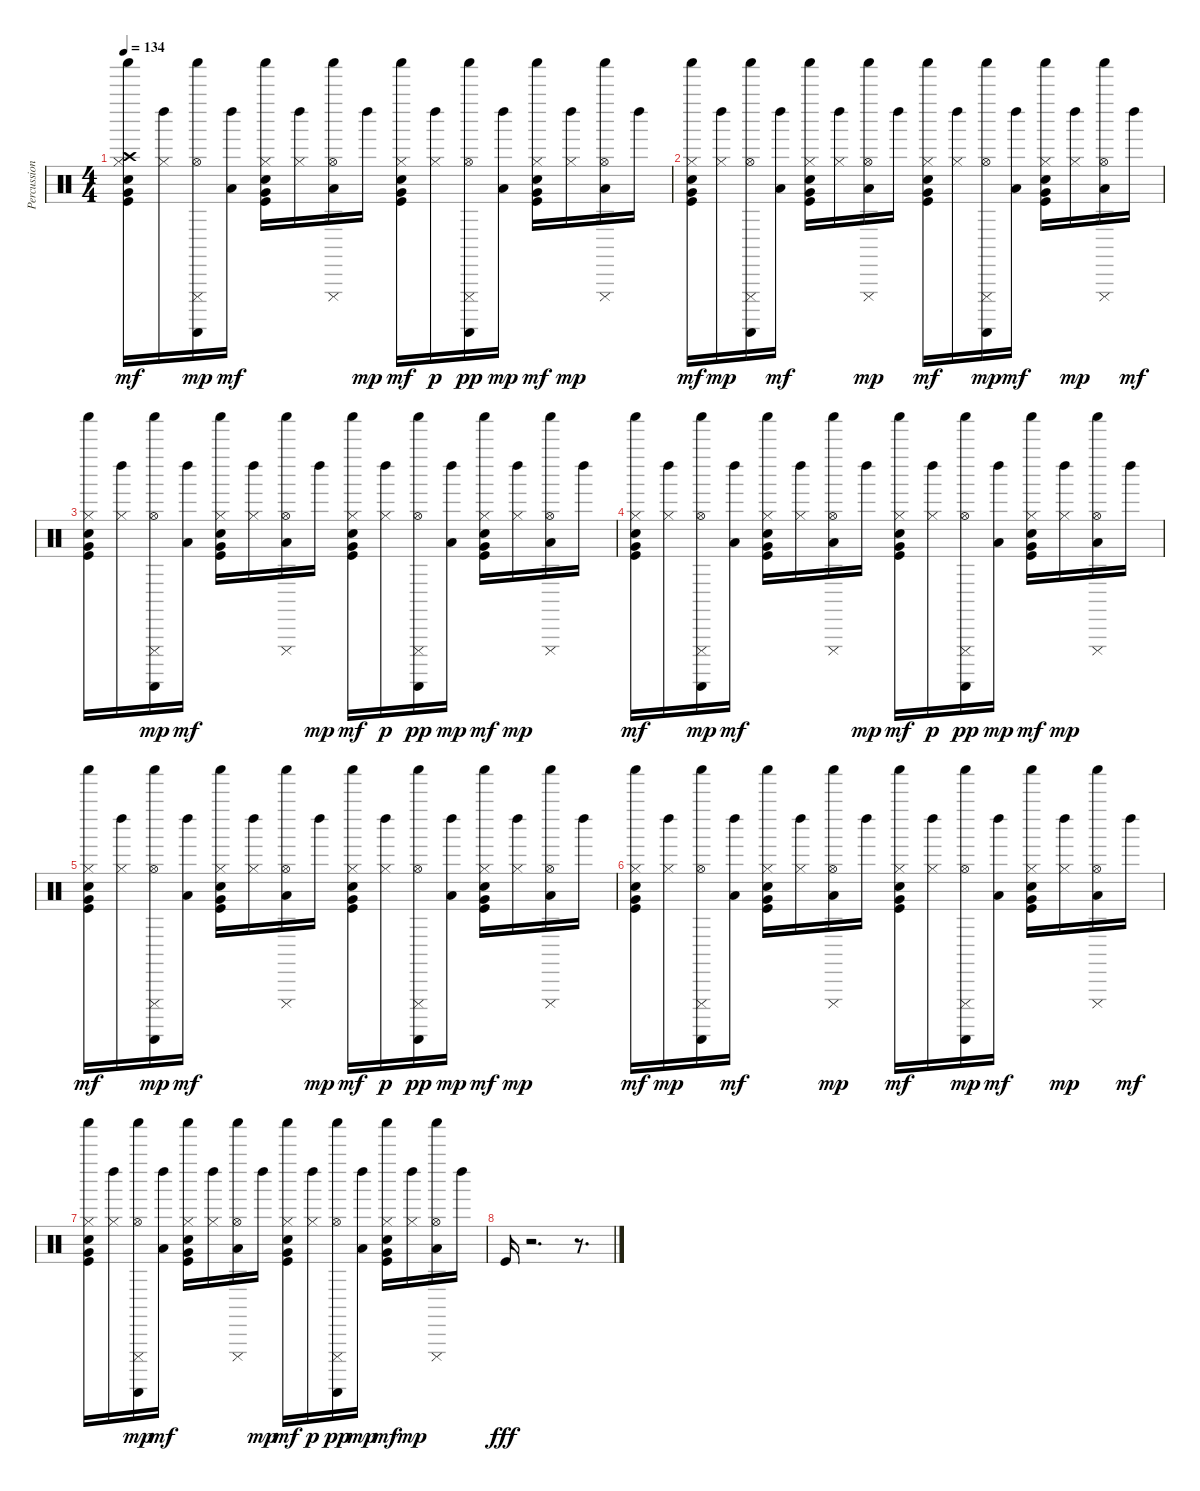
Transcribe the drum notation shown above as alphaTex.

\track ("Percussion" "Percussion") {instrument percussion}
\staff {score}
\articulation defaults
\ts (4 4)
\tempo 134
\clef neutral
\ks c
("Kick (hit)" "Hand Clap (hit)" "Hi-Hat (closed)" "Very Low Tom (hit)" "Crash high (hit)" "Shaker (hit)").16{dy mf} ("Hi-Hat (closed)" "Left Maraca (hit)").16 ("Hi-Hat (open)" "Guiro (scrap-return)" "Cuica (mute)" "Shaker (hit)").16{dy mp} ("Low Tom (hit)" "Left Maraca (hit)").16{dy mf} ("Kick (hit)" "Hand Clap (hit)" "Hi-Hat (closed)" "Very Low Tom (hit)" "Shaker (hit)").16 ("Hi-Hat (closed)" "Left Maraca (hit)").16 ("Low Tom (hit)" "Hi-Hat (open)" "Cuica (mute)" "Shaker (hit)").16 "Left Maraca (hit)".16{dy mp} ("Kick (hit)" "Hand Clap (hit)" "Hi-Hat (closed)" "Very Low Tom (hit)" "Shaker (hit)").16{dy mf} ("Hi-Hat (closed)" "Left Maraca (hit)").16{dy p} ("Hi-Hat (open)" "Guiro (scrap-return)" "Cuica (mute)" "Shaker (hit)").16{dy pp} ("Low Tom (hit)" "Left Maraca (hit)").16{dy mp} ("Kick (hit)" "Hand Clap (hit)" "Hi-Hat (closed)" "Very Low Tom (hit)" "Shaker (hit)").16{dy mf} ("Hi-Hat (closed)" "Left Maraca (hit)").16{dy mp} ("Low Tom (hit)" "Hi-Hat (open)" "Cuica (mute)" "Shaker (hit)").16 "Left Maraca (hit)".16 |
("Kick (hit)" "Hand Clap (hit)" "Hi-Hat (closed)" "Very Low Tom (hit)" "Shaker (hit)").16{dy mf} ("Hi-Hat (closed)" "Left Maraca (hit)").16{dy mp} ("Hi-Hat (open)" "Guiro (scrap-return)" "Cuica (mute)" "Shaker (hit)").16 ("Low Tom (hit)" "Left Maraca (hit)").16{dy mf} ("Kick (hit)" "Hand Clap (hit)" "Hi-Hat (closed)" "Very Low Tom (hit)" "Shaker (hit)").16 ("Hi-Hat (closed)" "Left Maraca (hit)").16 ("Low Tom (hit)" "Hi-Hat (open)" "Cuica (mute)" "Shaker (hit)").16{dy mp} "Left Maraca (hit)".16 ("Kick (hit)" "Hand Clap (hit)" "Hi-Hat (closed)" "Very Low Tom (hit)" "Shaker (hit)").16{dy mf} ("Hi-Hat (closed)" "Left Maraca (hit)").16 ("Hi-Hat (open)" "Guiro (scrap-return)" "Cuica (mute)" "Shaker (hit)").16{dy mp} ("Low Tom (hit)" "Left Maraca (hit)").16{dy mf} ("Kick (hit)" "Hand Clap (hit)" "Hi-Hat (closed)" "Very Low Tom (hit)" "Shaker (hit)").16 ("Hi-Hat (closed)" "Left Maraca (hit)").16{dy mp} ("Low Tom (hit)" "Hi-Hat (open)" "Cuica (mute)" "Shaker (hit)").16 "Left Maraca (hit)".16{dy mf} |
("Kick (hit)" "Hand Clap (hit)" "Hi-Hat (closed)" "Very Low Tom (hit)" "Shaker (hit)").16 ("Hi-Hat (closed)" "Left Maraca (hit)").16 ("Hi-Hat (open)" "Guiro (scrap-return)" "Cuica (mute)" "Shaker (hit)").16{dy mp} ("Low Tom (hit)" "Left Maraca (hit)").16{dy mf} ("Kick (hit)" "Hand Clap (hit)" "Hi-Hat (closed)" "Very Low Tom (hit)" "Shaker (hit)").16 ("Hi-Hat (closed)" "Left Maraca (hit)").16 ("Low Tom (hit)" "Hi-Hat (open)" "Cuica (mute)" "Shaker (hit)").16 "Left Maraca (hit)".16{dy mp} ("Kick (hit)" "Hand Clap (hit)" "Hi-Hat (closed)" "Very Low Tom (hit)" "Shaker (hit)").16{dy mf} ("Hi-Hat (closed)" "Left Maraca (hit)").16{dy p} ("Hi-Hat (open)" "Guiro (scrap-return)" "Cuica (mute)" "Shaker (hit)").16{dy pp} ("Low Tom (hit)" "Left Maraca (hit)").16{dy mp} ("Kick (hit)" "Hand Clap (hit)" "Hi-Hat (closed)" "Very Low Tom (hit)" "Shaker (hit)").16{dy mf} ("Hi-Hat (closed)" "Left Maraca (hit)").16{dy mp} ("Low Tom (hit)" "Hi-Hat (open)" "Cuica (mute)" "Shaker (hit)").16 "Left Maraca (hit)".16 |
("Kick (hit)" "Hand Clap (hit)" "Hi-Hat (closed)" "Very Low Tom (hit)" "Shaker (hit)").16{dy mf} ("Hi-Hat (closed)" "Left Maraca (hit)").16 ("Hi-Hat (open)" "Guiro (scrap-return)" "Cuica (mute)" "Shaker (hit)").16{dy mp} ("Low Tom (hit)" "Left Maraca (hit)").16{dy mf} ("Kick (hit)" "Hand Clap (hit)" "Hi-Hat (closed)" "Very Low Tom (hit)" "Shaker (hit)").16 ("Hi-Hat (closed)" "Left Maraca (hit)").16 ("Low Tom (hit)" "Hi-Hat (open)" "Cuica (mute)" "Shaker (hit)").16 "Left Maraca (hit)".16{dy mp} ("Kick (hit)" "Hand Clap (hit)" "Hi-Hat (closed)" "Very Low Tom (hit)" "Shaker (hit)").16{dy mf} ("Hi-Hat (closed)" "Left Maraca (hit)").16{dy p} ("Hi-Hat (open)" "Guiro (scrap-return)" "Cuica (mute)" "Shaker (hit)").16{dy pp} ("Low Tom (hit)" "Left Maraca (hit)").16{dy mp} ("Kick (hit)" "Hand Clap (hit)" "Hi-Hat (closed)" "Very Low Tom (hit)" "Shaker (hit)").16{dy mf} ("Hi-Hat (closed)" "Left Maraca (hit)").16{dy mp} ("Low Tom (hit)" "Hi-Hat (open)" "Cuica (mute)" "Shaker (hit)").16 "Left Maraca (hit)".16 |
("Kick (hit)" "Hand Clap (hit)" "Hi-Hat (closed)" "Very Low Tom (hit)" "Shaker (hit)").16{dy mf} ("Hi-Hat (closed)" "Left Maraca (hit)").16 ("Hi-Hat (open)" "Guiro (scrap-return)" "Cuica (mute)" "Shaker (hit)").16{dy mp} ("Low Tom (hit)" "Left Maraca (hit)").16{dy mf} ("Kick (hit)" "Hand Clap (hit)" "Hi-Hat (closed)" "Very Low Tom (hit)" "Shaker (hit)").16 ("Hi-Hat (closed)" "Left Maraca (hit)").16 ("Low Tom (hit)" "Hi-Hat (open)" "Cuica (mute)" "Shaker (hit)").16 "Left Maraca (hit)".16{dy mp} ("Kick (hit)" "Hand Clap (hit)" "Hi-Hat (closed)" "Very Low Tom (hit)" "Shaker (hit)").16{dy mf} ("Hi-Hat (closed)" "Left Maraca (hit)").16{dy p} ("Hi-Hat (open)" "Guiro (scrap-return)" "Cuica (mute)" "Shaker (hit)").16{dy pp} ("Low Tom (hit)" "Left Maraca (hit)").16{dy mp} ("Kick (hit)" "Hand Clap (hit)" "Hi-Hat (closed)" "Very Low Tom (hit)" "Shaker (hit)").16{dy mf} ("Hi-Hat (closed)" "Left Maraca (hit)").16{dy mp} ("Low Tom (hit)" "Hi-Hat (open)" "Cuica (mute)" "Shaker (hit)").16 "Left Maraca (hit)".16 |
("Kick (hit)" "Hand Clap (hit)" "Hi-Hat (closed)" "Very Low Tom (hit)" "Shaker (hit)").16{dy mf} ("Hi-Hat (closed)" "Left Maraca (hit)").16{dy mp} ("Hi-Hat (open)" "Guiro (scrap-return)" "Cuica (mute)" "Shaker (hit)").16 ("Low Tom (hit)" "Left Maraca (hit)").16{dy mf} ("Kick (hit)" "Hand Clap (hit)" "Hi-Hat (closed)" "Very Low Tom (hit)" "Shaker (hit)").16 ("Hi-Hat (closed)" "Left Maraca (hit)").16 ("Low Tom (hit)" "Hi-Hat (open)" "Cuica (mute)" "Shaker (hit)").16{dy mp} "Left Maraca (hit)".16 ("Kick (hit)" "Hand Clap (hit)" "Hi-Hat (closed)" "Very Low Tom (hit)" "Shaker (hit)").16{dy mf} ("Hi-Hat (closed)" "Left Maraca (hit)").16 ("Hi-Hat (open)" "Guiro (scrap-return)" "Cuica (mute)" "Shaker (hit)").16{dy mp} ("Low Tom (hit)" "Left Maraca (hit)").16{dy mf} ("Kick (hit)" "Hand Clap (hit)" "Hi-Hat (closed)" "Very Low Tom (hit)" "Shaker (hit)").16 ("Hi-Hat (closed)" "Left Maraca (hit)").16{dy mp} ("Low Tom (hit)" "Hi-Hat (open)" "Cuica (mute)" "Shaker (hit)").16 "Left Maraca (hit)".16{dy mf} |
("Kick (hit)" "Hand Clap (hit)" "Hi-Hat (closed)" "Very Low Tom (hit)" "Shaker (hit)").16 ("Hi-Hat (closed)" "Left Maraca (hit)").16 ("Hi-Hat (open)" "Guiro (scrap-return)" "Cuica (mute)" "Shaker (hit)").16{dy mp} ("Low Tom (hit)" "Left Maraca (hit)").16{dy mf} ("Kick (hit)" "Hand Clap (hit)" "Hi-Hat (closed)" "Very Low Tom (hit)" "Shaker (hit)").16 ("Hi-Hat (closed)" "Left Maraca (hit)").16 ("Low Tom (hit)" "Hi-Hat (open)" "Cuica (mute)" "Shaker (hit)").16 "Left Maraca (hit)".16{dy mp} ("Kick (hit)" "Hand Clap (hit)" "Hi-Hat (closed)" "Very Low Tom (hit)" "Shaker (hit)").16{dy mf} ("Hi-Hat (closed)" "Left Maraca (hit)").16{dy p} ("Hi-Hat (open)" "Guiro (scrap-return)" "Cuica (mute)" "Shaker (hit)").16{dy pp} ("Low Tom (hit)" "Left Maraca (hit)").16{dy mp} ("Kick (hit)" "Hand Clap (hit)" "Hi-Hat (closed)" "Very Low Tom (hit)" "Shaker (hit)").16{dy mf} ("Hi-Hat (closed)" "Left Maraca (hit)").16{dy mp} ("Low Tom (hit)" "Hi-Hat (open)" "Cuica (mute)" "Shaker (hit)").16 "Left Maraca (hit)".16 |
"Kick (hit)".16{dy fff} r.2{d} r.8{d}
